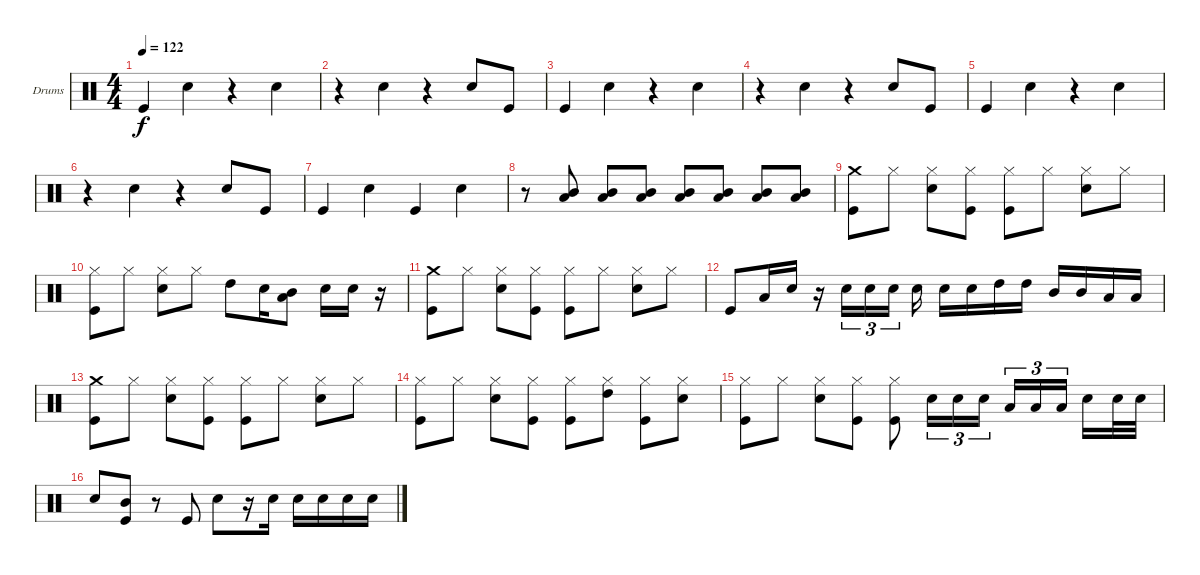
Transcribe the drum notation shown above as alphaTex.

\bracketExtendMode groupsimilarinstruments
\firstSystemTrackNameOrientation horizontal
\otherSystemsTrackNameOrientation horizontal
\track ("Drumkit" "Drums") {instrument percussion}
\staff {score}
\articulation defaults
\ts (4 4)
\tempo 122
\clef neutral
\ks c "Kick (hit)".4{dy f} "Snare (hit) 2".4
r.4 "Snare (hit) 2".4 |
r.4 "Snare (hit) 2".4 r.4 "Snare (hit) 2".8 "Kick (hit)".8 |
"Kick (hit)".4 "Snare (hit) 2".4 r.4 "Snare (hit) 2".4 |
r.4 "Snare (hit) 2".4 r.4 "Snare (hit) 2".8 "Kick (hit)".8 |
"Kick (hit)".4 "Snare (hit) 2".4 r.4 "Snare (hit) 2".4 |
r.4 "Snare (hit) 2".4 r.4 "Snare (hit) 2".8 "Kick (hit)".8 |
"Kick (hit)".4 "Snare (hit) 2".4 "Kick (hit)".4 "Snare (hit) 2".4 |
r.8 ("Mid Tom (hit)" "Low Tom (hit)").8 ("Mid Tom (hit)" "Low Tom (hit)").8 ("Mid Tom (hit)" "Low Tom (hit)").8 ("Mid Tom (hit)" "Low Tom (hit)").8 ("Mid Tom (hit)" "Low Tom (hit)").8 ("Mid Tom (hit)" "Low Tom (hit)").8 ("Mid Tom (hit)" "Low Tom (hit)").8 |
("Crash medium (hit)" "Kick (hit)").8 "Hi-Hat (closed)".8 ("Hi-Hat (closed)" "Snare (hit) 2").8 ("Hi-Hat (closed)" "Kick (hit)").8 ("Hi-Hat (closed)" "Kick (hit)").8 "Hi-Hat (closed)".8 ("Hi-Hat (closed)" "Snare (hit) 2").8 "Hi-Hat (closed)".8 |
("Hi-Hat (closed)" "Kick (hit)").8 "Hi-Hat (closed)".8 ("Hi-Hat (closed)" "Snare (hit) 2").8 "Hi-Hat (closed)".8 "High Tom (hit)".8 "Snare (hit) 2".16 ("Mid Tom (hit)" "Low Tom (hit)").8 "Snare (hit) 2".16 "Snare (hit) 2".16 r.16 |
("Crash medium (hit)" "Kick (hit)").8 "Hi-Hat (closed)".8 ("Hi-Hat (closed)" "Snare (hit) 2").8 ("Hi-Hat (closed)" "Kick (hit)").8 ("Hi-Hat (closed)" "Kick (hit)").8 "Hi-Hat (closed)".8 ("Hi-Hat (closed)" "Snare (hit) 2").8 "Hi-Hat (closed)".8 |
"Kick (hit)".8 "Low Tom (hit)".16 "Snare (hit) 2".16 r.16 "Snare (hit) 2".16{tu (3 2)} "Snare (hit) 2".16{tu (3 2)} "Snare (hit) 2".16{tu (3 2)} "Snare (hit) 2".16 "Snare (hit) 2".16 "Snare (hit) 2".16 "High Tom (hit)".16 "High Tom (hit)".16 "Mid Tom (hit)".16 "Mid Tom (hit)".16 "Low Tom (hit)".16 "Low Tom (hit)".16 |
("Crash medium (hit)" "Kick (hit)").8 "Hi-Hat (closed)".8 ("Hi-Hat (closed)" "Snare (hit) 2").8 ("Hi-Hat (closed)" "Kick (hit)").8 ("Hi-Hat (closed)" "Kick (hit)").8 "Hi-Hat (closed)".8 ("Hi-Hat (closed)" "Snare (hit) 2").8 "Hi-Hat (closed)".8 |
("Hi-Hat (closed)" "Kick (hit)").8 "Hi-Hat (closed)".8 ("Hi-Hat (closed)" "Snare (hit) 2").8 ("Hi-Hat (closed)" "Kick (hit)").8 ("Hi-Hat (closed)" "Kick (hit)").8 ("Hi-Hat (closed)" "High Tom (hit)").8 ("Hi-Hat (closed)" "Kick (hit)").8 ("Hi-Hat (closed)" "Snare (hit) 2").8 |
("Hi-Hat (closed)" "Kick (hit)").8 "Hi-Hat (closed)".8 ("Hi-Hat (closed)" "Snare (hit) 2").8 ("Hi-Hat (closed)" "Kick (hit)").8 ("Hi-Hat (closed)" "Kick (hit)").8 "Snare (hit) 2".16{tu (3 2)} "Snare (hit) 2".16{tu (3 2)} "Snare (hit) 2".16{tu (3 2)} "Low Tom (hit)".16{tu (3 2)} "Low Tom (hit)".16{tu (3 2)} "Low Tom (hit)".16{tu (3 2)} "Snare (hit) 2".16 "Snare (hit) 2".32 "Snare (hit) 2".32 |
"Snare (hit) 2".8 ("Mid Tom (hit)" "Kick (hit)").8 r.8 "Kick (hit)".8 "Snare (hit) 2".8 r.16 "Snare (hit) 2".16 "Snare (hit) 2".16 "Snare (hit) 2".16 "Snare (hit) 2".16 "Snare (hit) 2".16
